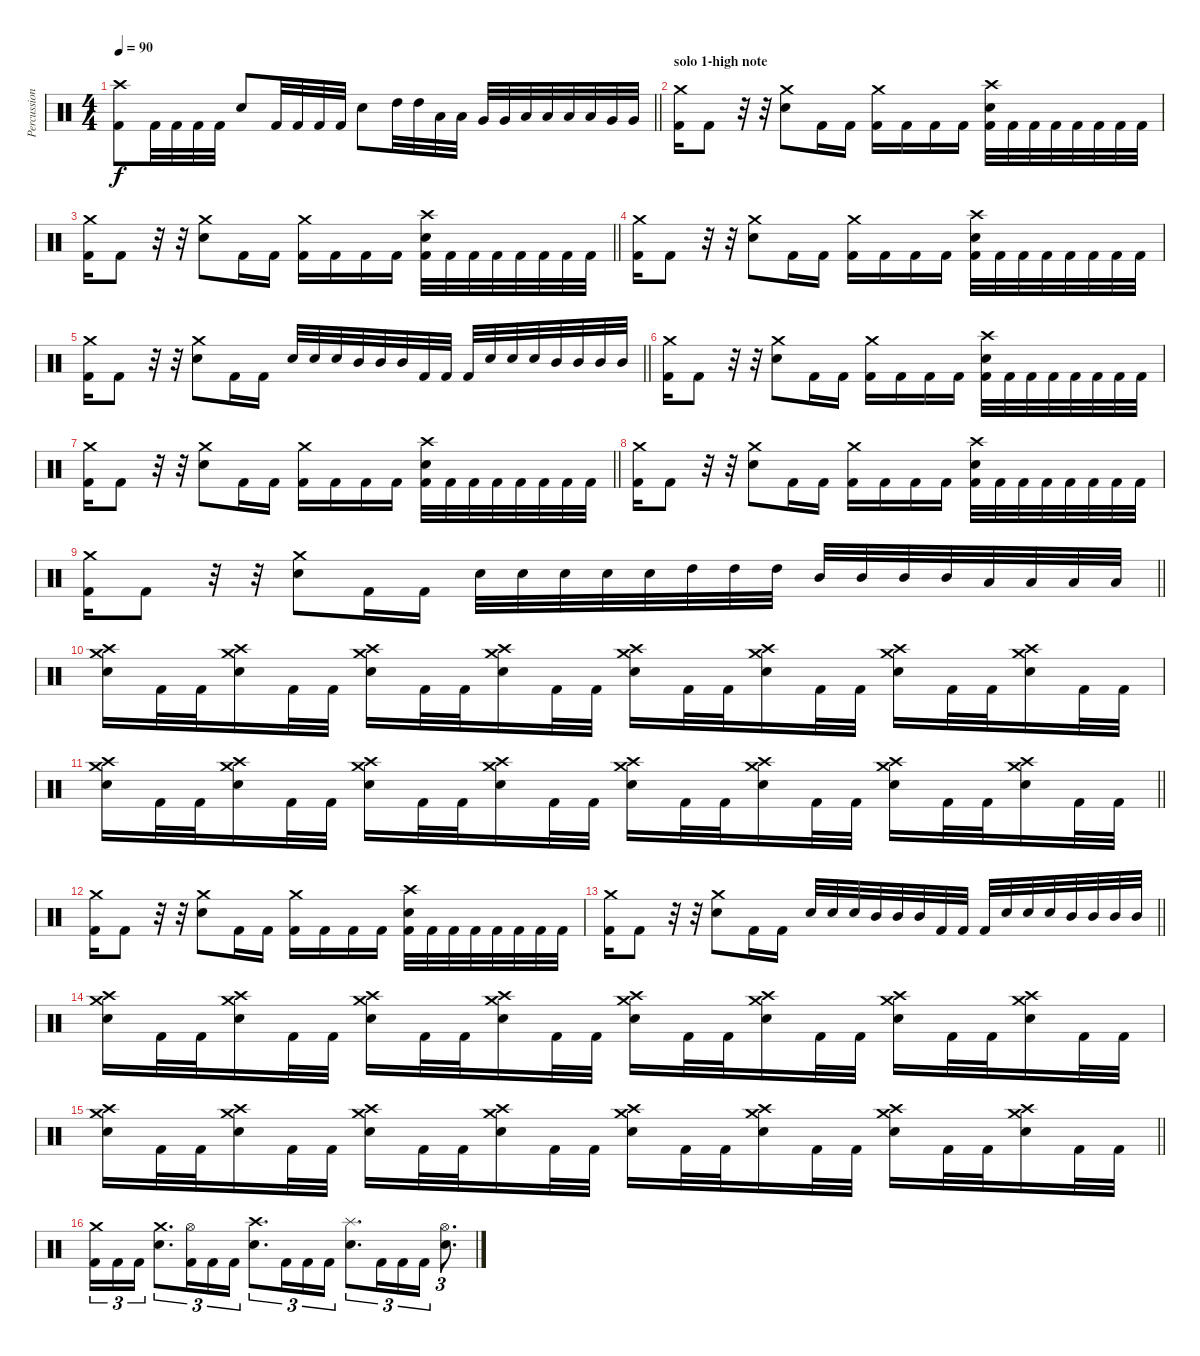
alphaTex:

\track ("Percussion" "Percussion") {instrument percussion}
\staff {score}
\articulation defaults
\ts (4 4)
\tempo 90
\clef neutral
\barLineRight lightlight
\ks c
("Crash high (hit)" "Kick (hit) 2").8{dy f} "Kick (hit) 2".32 "Kick (hit) 2".32 "Kick (hit) 2".32 "Kick (hit) 2".32 "Electric Snare (hit)".8 "Kick (hit) 2".32 "Kick (hit) 2".32 "Kick (hit) 2".32 "Kick (hit) 2".32 "Electric Snare (hit)".8 "High Tom (hit)".32 "High Tom (hit)".32 "Low Tom (hit)".32 "Low Tom (hit)".32 "Very Low Tom (hit)".32 "Very Low Tom (hit)".32 "Low Floor Tom (hit)".32 "Low Floor Tom (hit)".32 "Low Floor Tom (hit)".32 "Low Floor Tom (hit)".32 "Very Low Tom (hit)".32 "Very Low Tom (hit)".32 |
\section ("" "solo 1-high note")
("Crash medium (hit)" "Kick (hit) 2").16 "Kick (hit) 2".8 r.32 r.32 ("Crash medium (hit)" "Electric Snare (hit)").8 "Kick (hit) 2".16 "Kick (hit) 2".16 ("Crash medium (hit)" "Kick (hit) 2").16 "Kick (hit) 2".16 "Kick (hit) 2".16 "Kick (hit) 2".16 ("Crash high (hit)" "Electric Snare (hit)" "Kick (hit) 2").32 "Kick (hit) 2".32 "Kick (hit) 2".32 "Kick (hit) 2".32 "Kick (hit) 2".32 "Kick (hit) 2".32 "Kick (hit) 2".32 "Kick (hit) 2".32 |
\barLineRight lightlight
("Crash medium (hit)" "Kick (hit) 2").16 "Kick (hit) 2".8 r.32 r.32 ("Crash medium (hit)" "Electric Snare (hit)").8 "Kick (hit) 2".16 "Kick (hit) 2".16 ("Crash medium (hit)" "Kick (hit) 2").16 "Kick (hit) 2".16 "Kick (hit) 2".16 "Kick (hit) 2".16 ("Crash high (hit)" "Electric Snare (hit)" "Kick (hit) 2").32 "Kick (hit) 2".32 "Kick (hit) 2".32 "Kick (hit) 2".32 "Kick (hit) 2".32 "Kick (hit) 2".32 "Kick (hit) 2".32 "Kick (hit) 2".32 |
("Crash medium (hit)" "Kick (hit) 2").16 "Kick (hit) 2".8 r.32 r.32 ("Crash medium (hit)" "Electric Snare (hit)").8 "Kick (hit) 2".16 "Kick (hit) 2".16 ("Crash medium (hit)" "Kick (hit) 2").16 "Kick (hit) 2".16 "Kick (hit) 2".16 "Kick (hit) 2".16 ("Crash high (hit)" "Electric Snare (hit)" "Kick (hit) 2").32 "Kick (hit) 2".32 "Kick (hit) 2".32 "Kick (hit) 2".32 "Kick (hit) 2".32 "Kick (hit) 2".32 "Kick (hit) 2".32 "Kick (hit) 2".32 |
\barLineRight lightlight
("Crash medium (hit)" "Kick (hit) 2").16 "Kick (hit) 2".8 r.32 r.32 ("Crash medium (hit)" "Electric Snare (hit)").8 "Kick (hit) 2".16 "Kick (hit) 2".16 "Snare (hit) 2".32 "Snare (hit) 2".32 "Snare (hit) 2".32 "Mid Tom (hit)".32 "Mid Tom (hit)".32 "Mid Tom (hit)".32 "Kick (hit) 2".32 "Kick (hit) 2".32 "Kick (hit) 2".32 "Snare (hit) 2".32 "Snare (hit) 2".32 "Snare (hit) 2".32 "Mid Tom (hit)".32 "Mid Tom (hit)".32 "Mid Tom (hit)".32 "Mid Tom (hit)".32 |
("Crash medium (hit)" "Kick (hit) 2").16 "Kick (hit) 2".8 r.32 r.32 ("Crash medium (hit)" "Electric Snare (hit)").8 "Kick (hit) 2".16 "Kick (hit) 2".16 ("Crash medium (hit)" "Kick (hit) 2").16 "Kick (hit) 2".16 "Kick (hit) 2".16 "Kick (hit) 2".16 ("Crash high (hit)" "Electric Snare (hit)" "Kick (hit) 2").32 "Kick (hit) 2".32 "Kick (hit) 2".32 "Kick (hit) 2".32 "Kick (hit) 2".32 "Kick (hit) 2".32 "Kick (hit) 2".32 "Kick (hit) 2".32 |
\barLineRight lightlight
("Crash medium (hit)" "Kick (hit) 2").16 "Kick (hit) 2".8 r.32 r.32 ("Crash medium (hit)" "Electric Snare (hit)").8 "Kick (hit) 2".16 "Kick (hit) 2".16 ("Crash medium (hit)" "Kick (hit) 2").16 "Kick (hit) 2".16 "Kick (hit) 2".16 "Kick (hit) 2".16 ("Crash high (hit)" "Electric Snare (hit)" "Kick (hit) 2").32 "Kick (hit) 2".32 "Kick (hit) 2".32 "Kick (hit) 2".32 "Kick (hit) 2".32 "Kick (hit) 2".32 "Kick (hit) 2".32 "Kick (hit) 2".32 |
("Crash medium (hit)" "Kick (hit) 2").16 "Kick (hit) 2".8 r.32 r.32 ("Crash medium (hit)" "Electric Snare (hit)").8 "Kick (hit) 2".16 "Kick (hit) 2".16 ("Crash medium (hit)" "Kick (hit) 2").16 "Kick (hit) 2".16 "Kick (hit) 2".16 "Kick (hit) 2".16 ("Crash high (hit)" "Electric Snare (hit)" "Kick (hit) 2").32 "Kick (hit) 2".32 "Kick (hit) 2".32 "Kick (hit) 2".32 "Kick (hit) 2".32 "Kick (hit) 2".32 "Kick (hit) 2".32 "Kick (hit) 2".32 |
\barLineRight lightlight
("Crash medium (hit)" "Kick (hit) 2").16 "Kick (hit) 2".8 r.32 r.32 ("Crash medium (hit)" "Electric Snare (hit)").8 "Kick (hit) 2".16 "Kick (hit) 2".16 "Snare (hit) 2".32 "Snare (hit) 2".32 "Snare (hit) 2".32 "Snare (hit) 2".32 "Snare (hit) 2".32 "High Tom (hit)".32 "High Tom (hit)".32 "High Tom (hit)".32 "Mid Tom (hit)".32 "Mid Tom (hit)".32 "Mid Tom (hit)".32 "Mid Tom (hit)".32 "Low Tom (hit)".32 "Low Tom (hit)".32 "Low Tom (hit)".32 "Low Tom (hit)".32 |
("Crash medium (hit)" "Crash high (hit)" "Electric Snare (hit)").16 "Kick (hit) 2".32 "Kick (hit) 2".32 ("Crash medium (hit)" "Crash high (hit)" "Electric Snare (hit)").16 "Kick (hit) 2".32 "Kick (hit) 2".32 ("Crash medium (hit)" "Crash high (hit)" "Electric Snare (hit)").16 "Kick (hit) 2".32 "Kick (hit) 2".32 ("Crash medium (hit)" "Crash high (hit)" "Electric Snare (hit)").16 "Kick (hit) 2".32 "Kick (hit) 2".32 ("Crash medium (hit)" "Crash high (hit)" "Electric Snare (hit)").16 "Kick (hit) 2".32 "Kick (hit) 2".32 ("Crash medium (hit)" "Crash high (hit)" "Electric Snare (hit)").16 "Kick (hit) 2".32 "Kick (hit) 2".32 ("Crash medium (hit)" "Crash high (hit)" "Electric Snare (hit)").16 "Kick (hit) 2".32 "Kick (hit) 2".32 ("Crash medium (hit)" "Crash high (hit)" "Electric Snare (hit)").16 "Kick (hit) 2".32 "Kick (hit) 2".32 |
\barLineRight lightlight
("Crash medium (hit)" "Crash high (hit)" "Electric Snare (hit)").16 "Kick (hit) 2".32 "Kick (hit) 2".32 ("Crash medium (hit)" "Crash high (hit)" "Electric Snare (hit)").16 "Kick (hit) 2".32 "Kick (hit) 2".32 ("Crash medium (hit)" "Crash high (hit)" "Electric Snare (hit)").16 "Kick (hit) 2".32 "Kick (hit) 2".32 ("Crash medium (hit)" "Crash high (hit)" "Electric Snare (hit)").16 "Kick (hit) 2".32 "Kick (hit) 2".32 ("Crash medium (hit)" "Crash high (hit)" "Electric Snare (hit)").16 "Kick (hit) 2".32 "Kick (hit) 2".32 ("Crash medium (hit)" "Crash high (hit)" "Electric Snare (hit)").16 "Kick (hit) 2".32 "Kick (hit) 2".32 ("Crash medium (hit)" "Crash high (hit)" "Electric Snare (hit)").16 "Kick (hit) 2".32 "Kick (hit) 2".32 ("Crash medium (hit)" "Crash high (hit)" "Electric Snare (hit)").16 "Kick (hit) 2".32 "Kick (hit) 2".32 |
("Crash medium (hit)" "Kick (hit) 2").16 "Kick (hit) 2".8 r.32 r.32 ("Crash medium (hit)" "Electric Snare (hit)").8 "Kick (hit) 2".16 "Kick (hit) 2".16 ("Crash medium (hit)" "Kick (hit) 2").16 "Kick (hit) 2".16 "Kick (hit) 2".16 "Kick (hit) 2".16 ("Crash high (hit)" "Electric Snare (hit)" "Kick (hit) 2").32 "Kick (hit) 2".32 "Kick (hit) 2".32 "Kick (hit) 2".32 "Kick (hit) 2".32 "Kick (hit) 2".32 "Kick (hit) 2".32 "Kick (hit) 2".32 |
\barLineRight lightlight
("Crash medium (hit)" "Kick (hit) 2").16 "Kick (hit) 2".8 r.32 r.32 ("Crash medium (hit)" "Electric Snare (hit)").8 "Kick (hit) 2".16 "Kick (hit) 2".16 "Snare (hit) 2".32 "Snare (hit) 2".32 "Snare (hit) 2".32 "Mid Tom (hit)".32 "Mid Tom (hit)".32 "Mid Tom (hit)".32 "Kick (hit) 2".32 "Kick (hit) 2".32 "Kick (hit) 2".32 "Snare (hit) 2".32 "Snare (hit) 2".32 "Snare (hit) 2".32 "Mid Tom (hit)".32 "Mid Tom (hit)".32 "Mid Tom (hit)".32 "Mid Tom (hit)".32 |
("Crash medium (hit)" "Crash high (hit)" "Electric Snare (hit)").16 "Kick (hit) 2".32 "Kick (hit) 2".32 ("Crash medium (hit)" "Crash high (hit)" "Electric Snare (hit)").16 "Kick (hit) 2".32 "Kick (hit) 2".32 ("Crash medium (hit)" "Crash high (hit)" "Electric Snare (hit)").16 "Kick (hit) 2".32 "Kick (hit) 2".32 ("Crash medium (hit)" "Crash high (hit)" "Electric Snare (hit)").16 "Kick (hit) 2".32 "Kick (hit) 2".32 ("Crash medium (hit)" "Crash high (hit)" "Electric Snare (hit)").16 "Kick (hit) 2".32 "Kick (hit) 2".32 ("Crash medium (hit)" "Crash high (hit)" "Electric Snare (hit)").16 "Kick (hit) 2".32 "Kick (hit) 2".32 ("Crash medium (hit)" "Crash high (hit)" "Electric Snare (hit)").16 "Kick (hit) 2".32 "Kick (hit) 2".32 ("Crash medium (hit)" "Crash high (hit)" "Electric Snare (hit)").16 "Kick (hit) 2".32 "Kick (hit) 2".32 |
\barLineRight lightlight
("Crash medium (hit)" "Crash high (hit)" "Electric Snare (hit)").16 "Kick (hit) 2".32 "Kick (hit) 2".32 ("Crash medium (hit)" "Crash high (hit)" "Electric Snare (hit)").16 "Kick (hit) 2".32 "Kick (hit) 2".32 ("Crash medium (hit)" "Crash high (hit)" "Electric Snare (hit)").16 "Kick (hit) 2".32 "Kick (hit) 2".32 ("Crash medium (hit)" "Crash high (hit)" "Electric Snare (hit)").16 "Kick (hit) 2".32 "Kick (hit) 2".32 ("Crash medium (hit)" "Crash high (hit)" "Electric Snare (hit)").16 "Kick (hit) 2".32 "Kick (hit) 2".32 ("Crash medium (hit)" "Crash high (hit)" "Electric Snare (hit)").16 "Kick (hit) 2".32 "Kick (hit) 2".32 ("Crash medium (hit)" "Crash high (hit)" "Electric Snare (hit)").16 "Kick (hit) 2".32 "Kick (hit) 2".32 ("Crash medium (hit)" "Crash high (hit)" "Electric Snare (hit)").16 "Kick (hit) 2".32 "Kick (hit) 2".32 |
("Crash medium (hit)" "Kick (hit) 2").16{tu (3 2)} "Kick (hit) 2".16{tu (3 2)} "Kick (hit) 2".16{tu (3 2)} ("Snare (hit) 2" "Crash medium (hit)").8{d tu (3 2)} ("Hi-Hat (open)" "Kick (hit) 2").16{tu (3 2)} "Kick (hit) 2".16{tu (3 2)} "Kick (hit) 2".16{tu (3 2)} ("Snare (hit) 2" "Crash high (hit)").8{d tu (3 2)} "Kick (hit) 2".16{tu (3 2)} "Kick (hit) 2".16{tu (3 2)} "Kick (hit) 2".16{tu (3 2)} ("Snare (hit) 2" "Splash (hit)").8{d tu (3 2)} "Kick (hit) 2".16{tu (3 2)} "Kick (hit) 2".16{tu (3 2)} "Kick (hit) 2".16{tu (3 2)} ("Snare (hit) 2" "Hi-Hat (open)").8{d tu (3 2)}
